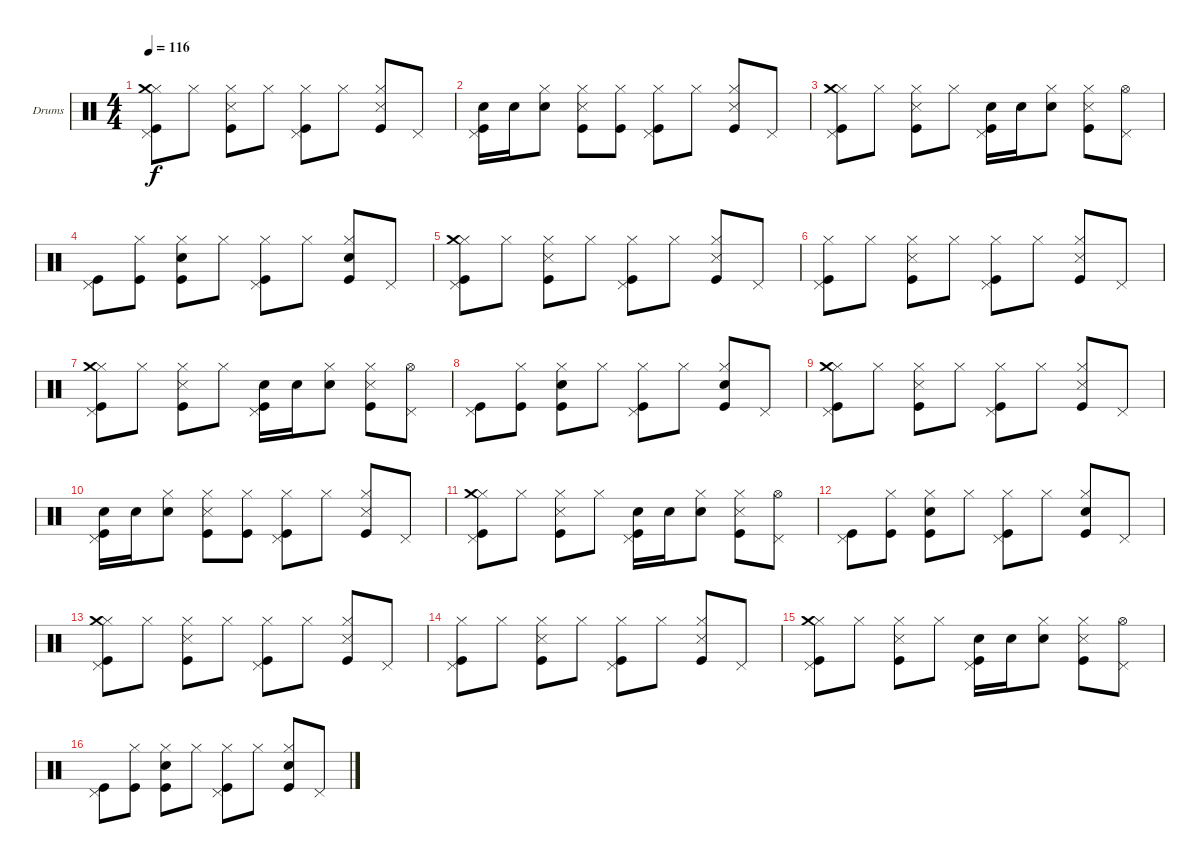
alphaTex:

\bracketExtendMode groupsimilarinstruments
\firstSystemTrackNameOrientation horizontal
\otherSystemsTrackNameOrientation horizontal
\track ("Drumkit" "Drums") {instrument percussion}
\staff {score}
\articulation defaults
\ts (4 4)
\tempo 116
\clef neutral
\ks c
("Kick (hit)" "Hi-Hat (closed)" "Pedal Hi-Hat (hit)" "Crash medium (hit)").8{dy f} "Hi-Hat (closed)".8 ("Snare (side stick) 3" "Hi-Hat (closed)" "Kick (hit)").8 "Hi-Hat (closed)".8 ("Kick (hit)" "Hi-Hat (closed)" "Pedal Hi-Hat (hit)").8 "Hi-Hat (closed)".8 ("Snare (side stick) 3" "Hi-Hat (closed)" "Kick (hit)").8 "Pedal Hi-Hat (hit)".8 |
("Kick (hit)" "Snare (hit) 2" "Pedal Hi-Hat (hit)").16 "Snare (hit) 2".16 ("Snare (hit) 2" "Hi-Hat (closed)").8 ("Snare (side stick) 3" "Kick (hit)" "Hi-Hat (closed)").8 ("Kick (hit)" "Hi-Hat (closed)").8 ("Hi-Hat (closed)" "Pedal Hi-Hat (hit)" "Kick (hit)").8 "Hi-Hat (closed)".8 ("Snare (side stick) 3" "Hi-Hat (closed)" "Kick (hit)").8 "Pedal Hi-Hat (hit)".8 |
("Hi-Hat (closed)" "Kick (hit)" "Pedal Hi-Hat (hit)" "Crash medium (hit)").8 "Hi-Hat (closed)".8 ("Snare (side stick) 3" "Hi-Hat (closed)" "Kick (hit)").8 "Hi-Hat (closed)".8 ("Snare (hit) 2" "Pedal Hi-Hat (hit)" "Kick (hit)").16 "Snare (hit) 2".16 ("Snare (hit) 2" "Hi-Hat (closed)").8 ("Snare (side stick) 3" "Hi-Hat (closed)" "Kick (hit)").8 ("Hi-Hat (open)" "Pedal Hi-Hat (hit)").8 |
("Kick (hit)" "Pedal Hi-Hat (hit)").8 ("Kick (hit)" "Hi-Hat (closed)").8 ("Snare (hit) 2" "Hi-Hat (closed)" "Kick (hit)").8 "Hi-Hat (closed)".8 ("Hi-Hat (closed)" "Pedal Hi-Hat (hit)" "Kick (hit)").8 "Hi-Hat (closed)".8 ("Snare (hit) 2" "Hi-Hat (closed)" "Kick (hit)").8 "Pedal Hi-Hat (hit)".8 |
("Kick (hit)" "Hi-Hat (closed)" "Pedal Hi-Hat (hit)" "Crash medium (hit)").8 "Hi-Hat (closed)".8 ("Snare (side stick) 3" "Hi-Hat (closed)" "Kick (hit)").8 "Hi-Hat (closed)".8 ("Kick (hit)" "Hi-Hat (closed)" "Pedal Hi-Hat (hit)").8 "Hi-Hat (closed)".8 ("Snare (side stick) 3" "Hi-Hat (closed)" "Kick (hit)").8 "Pedal Hi-Hat (hit)".8 |
("Kick (hit)" "Hi-Hat (closed)" "Pedal Hi-Hat (hit)").8 "Hi-Hat (closed)".8 ("Snare (side stick) 3" "Hi-Hat (closed)" "Kick (hit)").8 "Hi-Hat (closed)".8 ("Kick (hit)" "Hi-Hat (closed)" "Pedal Hi-Hat (hit)").8 "Hi-Hat (closed)".8 ("Snare (side stick) 3" "Hi-Hat (closed)" "Kick (hit)").8 "Pedal Hi-Hat (hit)".8 |
("Hi-Hat (closed)" "Kick (hit)" "Pedal Hi-Hat (hit)" "Crash medium (hit)").8 "Hi-Hat (closed)".8 ("Snare (side stick) 3" "Hi-Hat (closed)" "Kick (hit)").8 "Hi-Hat (closed)".8 ("Snare (hit) 2" "Pedal Hi-Hat (hit)" "Kick (hit)").16 "Snare (hit) 2".16 ("Snare (hit) 2" "Hi-Hat (closed)").8 ("Snare (side stick) 3" "Hi-Hat (closed)" "Kick (hit)").8 ("Hi-Hat (open)" "Pedal Hi-Hat (hit)").8 |
("Kick (hit)" "Pedal Hi-Hat (hit)").8 ("Kick (hit)" "Hi-Hat (closed)").8 ("Snare (hit) 2" "Hi-Hat (closed)" "Kick (hit)").8 "Hi-Hat (closed)".8 ("Hi-Hat (closed)" "Pedal Hi-Hat (hit)" "Kick (hit)").8 "Hi-Hat (closed)".8 ("Snare (hit) 2" "Hi-Hat (closed)" "Kick (hit)").8 "Pedal Hi-Hat (hit)".8 |
("Kick (hit)" "Hi-Hat (closed)" "Pedal Hi-Hat (hit)" "Crash medium (hit)").8 "Hi-Hat (closed)".8 ("Snare (side stick) 3" "Hi-Hat (closed)" "Kick (hit)").8 "Hi-Hat (closed)".8 ("Kick (hit)" "Hi-Hat (closed)" "Pedal Hi-Hat (hit)").8 "Hi-Hat (closed)".8 ("Snare (side stick) 3" "Hi-Hat (closed)" "Kick (hit)").8 "Pedal Hi-Hat (hit)".8 |
("Kick (hit)" "Snare (hit) 2" "Pedal Hi-Hat (hit)").16 "Snare (hit) 2".16 ("Snare (hit) 2" "Hi-Hat (closed)").8 ("Snare (side stick) 3" "Kick (hit)" "Hi-Hat (closed)").8 ("Kick (hit)" "Hi-Hat (closed)").8 ("Hi-Hat (closed)" "Pedal Hi-Hat (hit)" "Kick (hit)").8 "Hi-Hat (closed)".8 ("Snare (side stick) 3" "Hi-Hat (closed)" "Kick (hit)").8 "Pedal Hi-Hat (hit)".8 |
("Hi-Hat (closed)" "Kick (hit)" "Pedal Hi-Hat (hit)" "Crash medium (hit)").8 "Hi-Hat (closed)".8 ("Snare (side stick) 3" "Hi-Hat (closed)" "Kick (hit)").8 "Hi-Hat (closed)".8 ("Snare (hit) 2" "Pedal Hi-Hat (hit)" "Kick (hit)").16 "Snare (hit) 2".16 ("Snare (hit) 2" "Hi-Hat (closed)").8 ("Snare (side stick) 3" "Hi-Hat (closed)" "Kick (hit)").8 ("Hi-Hat (open)" "Pedal Hi-Hat (hit)").8 |
("Kick (hit)" "Pedal Hi-Hat (hit)").8 ("Kick (hit)" "Hi-Hat (closed)").8 ("Snare (hit) 2" "Hi-Hat (closed)" "Kick (hit)").8 "Hi-Hat (closed)".8 ("Hi-Hat (closed)" "Pedal Hi-Hat (hit)" "Kick (hit)").8 "Hi-Hat (closed)".8 ("Snare (hit) 2" "Hi-Hat (closed)" "Kick (hit)").8 "Pedal Hi-Hat (hit)".8 |
("Kick (hit)" "Hi-Hat (closed)" "Pedal Hi-Hat (hit)" "Crash medium (hit)").8 "Hi-Hat (closed)".8 ("Snare (side stick) 3" "Hi-Hat (closed)" "Kick (hit)").8 "Hi-Hat (closed)".8 ("Kick (hit)" "Hi-Hat (closed)" "Pedal Hi-Hat (hit)").8 "Hi-Hat (closed)".8 ("Snare (side stick) 3" "Hi-Hat (closed)" "Kick (hit)").8 "Pedal Hi-Hat (hit)".8 |
("Kick (hit)" "Hi-Hat (closed)" "Pedal Hi-Hat (hit)").8 "Hi-Hat (closed)".8 ("Snare (side stick) 3" "Hi-Hat (closed)" "Kick (hit)").8 "Hi-Hat (closed)".8 ("Kick (hit)" "Hi-Hat (closed)" "Pedal Hi-Hat (hit)").8 "Hi-Hat (closed)".8 ("Snare (side stick) 3" "Hi-Hat (closed)" "Kick (hit)").8 "Pedal Hi-Hat (hit)".8 |
("Hi-Hat (closed)" "Kick (hit)" "Pedal Hi-Hat (hit)" "Crash medium (hit)").8 "Hi-Hat (closed)".8 ("Snare (side stick) 3" "Hi-Hat (closed)" "Kick (hit)").8 "Hi-Hat (closed)".8 ("Snare (hit) 2" "Pedal Hi-Hat (hit)" "Kick (hit)").16 "Snare (hit) 2".16 ("Snare (hit) 2" "Hi-Hat (closed)").8 ("Snare (side stick) 3" "Hi-Hat (closed)" "Kick (hit)").8 ("Hi-Hat (open)" "Pedal Hi-Hat (hit)").8 |
("Kick (hit)" "Pedal Hi-Hat (hit)").8 ("Kick (hit)" "Hi-Hat (closed)").8 ("Snare (hit) 2" "Hi-Hat (closed)" "Kick (hit)").8 "Hi-Hat (closed)".8 ("Hi-Hat (closed)" "Pedal Hi-Hat (hit)" "Kick (hit)").8 "Hi-Hat (closed)".8 ("Snare (hit) 2" "Hi-Hat (closed)" "Kick (hit)").8 "Pedal Hi-Hat (hit)".8
